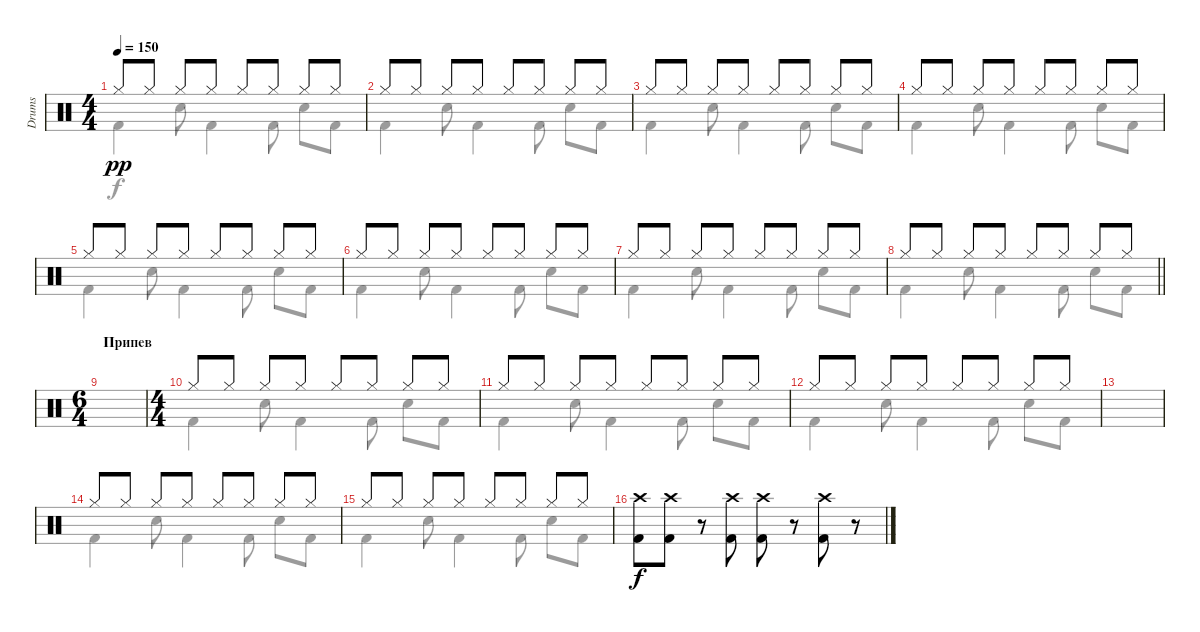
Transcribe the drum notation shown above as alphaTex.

\track ("Drums" "Drums") {instrument percussion}
\staff {score}
\articulation defaults
\voice
\ts (4 4)
\tempo 150
\clef neutral
\ks c "Hi-Hat (closed)".8{dy pp} "Hi-Hat (closed)".8 "Hi-Hat (closed)".8 "Hi-Hat (closed)".8 "Hi-Hat (closed)".8 "Hi-Hat (closed)".8 "Hi-Hat (closed)".8 "Hi-Hat (closed)".8
|
"Hi-Hat (closed)".8 "Hi-Hat (closed)".8 "Hi-Hat (closed)".8 "Hi-Hat (closed)".8 "Hi-Hat (closed)".8 "Hi-Hat (closed)".8 "Hi-Hat (closed)".8 "Hi-Hat (closed)".8 |
"Hi-Hat (closed)".8 "Hi-Hat (closed)".8 "Hi-Hat (closed)".8 "Hi-Hat (closed)".8 "Hi-Hat (closed)".8 "Hi-Hat (closed)".8 "Hi-Hat (closed)".8 "Hi-Hat (closed)".8 |
"Hi-Hat (closed)".8 "Hi-Hat (closed)".8 "Hi-Hat (closed)".8 "Hi-Hat (closed)".8 "Hi-Hat (closed)".8 "Hi-Hat (closed)".8 "Hi-Hat (closed)".8 "Hi-Hat (closed)".8 |
"Hi-Hat (closed)".8 "Hi-Hat (closed)".8 "Hi-Hat (closed)".8 "Hi-Hat (closed)".8 "Hi-Hat (closed)".8 "Hi-Hat (closed)".8 "Hi-Hat (closed)".8 "Hi-Hat (closed)".8 |
"Hi-Hat (closed)".8 "Hi-Hat (closed)".8 "Hi-Hat (closed)".8 "Hi-Hat (closed)".8 "Hi-Hat (closed)".8 "Hi-Hat (closed)".8 "Hi-Hat (closed)".8 "Hi-Hat (closed)".8 |
"Hi-Hat (closed)".8 "Hi-Hat (closed)".8 "Hi-Hat (closed)".8 "Hi-Hat (closed)".8 "Hi-Hat (closed)".8 "Hi-Hat (closed)".8 "Hi-Hat (closed)".8 "Hi-Hat (closed)".8 |
\barLineRight lightlight "Hi-Hat (closed)".8 "Hi-Hat (closed)".8 "Hi-Hat (closed)".8 "Hi-Hat (closed)".8 "Hi-Hat (closed)".8 "Hi-Hat (closed)".8 "Hi-Hat (closed)".8 "Hi-Hat (closed)".8
|
\ts (6 4)
\section ("" "Припев")
|
\ts (4 4)
"Hi-Hat (closed)".8 "Hi-Hat (closed)".8 "Hi-Hat (closed)".8 "Hi-Hat (closed)".8 "Hi-Hat (closed)".8 "Hi-Hat (closed)".8 "Hi-Hat (closed)".8 "Hi-Hat (closed)".8 |
"Hi-Hat (closed)".8 "Hi-Hat (closed)".8 "Hi-Hat (closed)".8 "Hi-Hat (closed)".8 "Hi-Hat (closed)".8 "Hi-Hat (closed)".8 "Hi-Hat (closed)".8 "Hi-Hat (closed)".8 |
"Hi-Hat (closed)".8 "Hi-Hat (closed)".8 "Hi-Hat (closed)".8 "Hi-Hat (closed)".8 "Hi-Hat (closed)".8 "Hi-Hat (closed)".8 "Hi-Hat (closed)".8 "Hi-Hat (closed)".8 |
|
"Hi-Hat (closed)".8 "Hi-Hat (closed)".8 "Hi-Hat (closed)".8 "Hi-Hat (closed)".8 "Hi-Hat (closed)".8 "Hi-Hat (closed)".8 "Hi-Hat (closed)".8 "Hi-Hat (closed)".8 |
"Hi-Hat (closed)".8 "Hi-Hat (closed)".8 "Hi-Hat (closed)".8 "Hi-Hat (closed)".8 "Hi-Hat (closed)".8 "Hi-Hat (closed)".8 "Hi-Hat (closed)".8 "Hi-Hat (closed)".8 |
("Crash high (hit)" "Kick (hit) 2").8{dy f} ("Crash high (hit)" "Kick (hit) 2").8 r.8 ("Crash high (hit)" "Kick (hit) 2").8 ("Crash high (hit)" "Kick (hit) 2").8 r.8 ("Crash high (hit)" "Kick (hit) 2").8 r.8
\voice
\clef neutral
\ottava regular
\simile none
\ks c "Kick (hit) 2".4{dy f} "Electric Snare (hit)".8 "Kick (hit) 2".4 "Kick (hit) 2".8 "Electric Snare (hit)".8 "Kick (hit) 2".8
|
"Kick (hit) 2".4 "Electric Snare (hit)".8 "Kick (hit) 2".4 "Kick (hit) 2".8 "Electric Snare (hit)".8 "Kick (hit) 2".8 |
"Kick (hit) 2".4 "Electric Snare (hit)".8 "Kick (hit) 2".4 "Kick (hit) 2".8 "Electric Snare (hit)".8 "Kick (hit) 2".8 |
"Kick (hit) 2".4 "Electric Snare (hit)".8 "Kick (hit) 2".4 "Kick (hit) 2".8 "Electric Snare (hit)".8 "Kick (hit) 2".8 |
"Kick (hit) 2".4 "Electric Snare (hit)".8 "Kick (hit) 2".4 "Kick (hit) 2".8 "Electric Snare (hit)".8 "Kick (hit) 2".8 |
"Kick (hit) 2".4 "Electric Snare (hit)".8 "Kick (hit) 2".4 "Kick (hit) 2".8 "Electric Snare (hit)".8 "Kick (hit) 2".8 |
"Kick (hit) 2".4 "Electric Snare (hit)".8 "Kick (hit) 2".4 "Kick (hit) 2".8 "Electric Snare (hit)".8 "Kick (hit) 2".8 |
\barLineRight lightlight "Kick (hit) 2".4 "Electric Snare (hit)".8 "Kick (hit) 2".4 "Kick (hit) 2".8 "Electric Snare (hit)".8 "Kick (hit) 2".8
|
|
"Kick (hit) 2".4 "Electric Snare (hit)".8 "Kick (hit) 2".4 "Kick (hit) 2".8 "Electric Snare (hit)".8 "Kick (hit) 2".8 |
"Kick (hit) 2".4 "Electric Snare (hit)".8 "Kick (hit) 2".4 "Kick (hit) 2".8 "Electric Snare (hit)".8 "Kick (hit) 2".8 |
"Kick (hit) 2".4 "Electric Snare (hit)".8 "Kick (hit) 2".4 "Kick (hit) 2".8 "Electric Snare (hit)".8 "Kick (hit) 2".8 |
|
"Kick (hit) 2".4 "Electric Snare (hit)".8 "Kick (hit) 2".4 "Kick (hit) 2".8 "Electric Snare (hit)".8 "Kick (hit) 2".8 |
"Kick (hit) 2".4 "Electric Snare (hit)".8 "Kick (hit) 2".4 "Kick (hit) 2".8 "Electric Snare (hit)".8 "Kick (hit) 2".8 |
